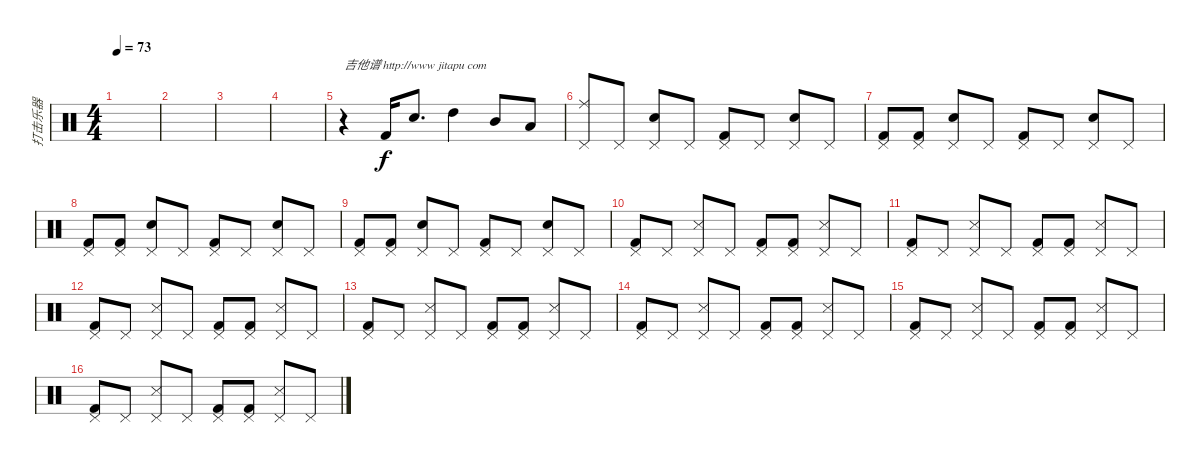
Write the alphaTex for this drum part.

\track ("打击乐器" "打击乐器") {instrument percussion}
\staff {score}
\articulation defaults
\ts (4 4)
\tempo 73
\clef neutral
\ks c
|
|
|
|
r.4{txt "吉他谱 http://www jitapu com"} "Kick (hit) 2".16 "Electric Snare (hit)".8{d} "High Tom (hit)".4 "Mid Tom (hit)".8 "Low Tom (hit)".8 |
("Ride (middle)" "Pedal Hi-Hat (hit)").8 "Pedal Hi-Hat (hit)".8 ("Electric Snare (hit)" "Pedal Hi-Hat (hit)").8 "Pedal Hi-Hat (hit)".8 ("Kick (hit) 2" "Pedal Hi-Hat (hit)").8 "Pedal Hi-Hat (hit)".8 ("Electric Snare (hit)" "Pedal Hi-Hat (hit)").8 "Pedal Hi-Hat (hit)".8 |
("Kick (hit) 2" "Pedal Hi-Hat (hit)").8 ("Kick (hit) 2" "Pedal Hi-Hat (hit)").8 ("Electric Snare (hit)" "Pedal Hi-Hat (hit)").8 "Pedal Hi-Hat (hit)".8 ("Kick (hit) 2" "Pedal Hi-Hat (hit)").8 "Pedal Hi-Hat (hit)".8 ("Electric Snare (hit)" "Pedal Hi-Hat (hit)").8 "Pedal Hi-Hat (hit)".8 |
("Kick (hit) 2" "Pedal Hi-Hat (hit)").8 ("Kick (hit) 2" "Pedal Hi-Hat (hit)").8 ("Electric Snare (hit)" "Pedal Hi-Hat (hit)").8 "Pedal Hi-Hat (hit)".8 ("Kick (hit) 2" "Pedal Hi-Hat (hit)").8 "Pedal Hi-Hat (hit)".8 ("Electric Snare (hit)" "Pedal Hi-Hat (hit)").8 "Pedal Hi-Hat (hit)".8 |
("Kick (hit) 2" "Pedal Hi-Hat (hit)").8 ("Kick (hit) 2" "Pedal Hi-Hat (hit)").8 ("Electric Snare (hit)" "Pedal Hi-Hat (hit)").8 "Pedal Hi-Hat (hit)".8 ("Kick (hit) 2" "Pedal Hi-Hat (hit)").8 "Pedal Hi-Hat (hit)".8 ("Electric Snare (hit)" "Pedal Hi-Hat (hit)").8 "Pedal Hi-Hat (hit)".8 |
("Kick (hit) 2" "Pedal Hi-Hat (hit)").8 "Pedal Hi-Hat (hit)".8 ("Snare (side stick) 3" "Pedal Hi-Hat (hit)").8 "Pedal Hi-Hat (hit)".8 ("Kick (hit) 2" "Pedal Hi-Hat (hit)").8 ("Kick (hit) 2" "Pedal Hi-Hat (hit)").8 ("Snare (side stick) 3" "Pedal Hi-Hat (hit)").8 "Pedal Hi-Hat (hit)".8 |
("Kick (hit) 2" "Pedal Hi-Hat (hit)").8 "Pedal Hi-Hat (hit)".8 ("Snare (side stick) 3" "Pedal Hi-Hat (hit)").8 "Pedal Hi-Hat (hit)".8 ("Kick (hit) 2" "Pedal Hi-Hat (hit)").8 ("Kick (hit) 2" "Pedal Hi-Hat (hit)").8 ("Snare (side stick) 3" "Pedal Hi-Hat (hit)").8 "Pedal Hi-Hat (hit)".8 |
("Kick (hit) 2" "Pedal Hi-Hat (hit)").8 "Pedal Hi-Hat (hit)".8 ("Snare (side stick) 3" "Pedal Hi-Hat (hit)").8 "Pedal Hi-Hat (hit)".8 ("Kick (hit) 2" "Pedal Hi-Hat (hit)").8 ("Kick (hit) 2" "Pedal Hi-Hat (hit)").8 ("Snare (side stick) 3" "Pedal Hi-Hat (hit)").8 "Pedal Hi-Hat (hit)".8 |
("Kick (hit) 2" "Pedal Hi-Hat (hit)").8 "Pedal Hi-Hat (hit)".8 ("Snare (side stick) 3" "Pedal Hi-Hat (hit)").8 "Pedal Hi-Hat (hit)".8 ("Kick (hit) 2" "Pedal Hi-Hat (hit)").8 ("Kick (hit) 2" "Pedal Hi-Hat (hit)").8 ("Snare (side stick) 3" "Pedal Hi-Hat (hit)").8 "Pedal Hi-Hat (hit)".8 |
("Kick (hit) 2" "Pedal Hi-Hat (hit)").8 "Pedal Hi-Hat (hit)".8 ("Snare (side stick) 3" "Pedal Hi-Hat (hit)").8 "Pedal Hi-Hat (hit)".8 ("Kick (hit) 2" "Pedal Hi-Hat (hit)").8 ("Kick (hit) 2" "Pedal Hi-Hat (hit)").8 ("Snare (side stick) 3" "Pedal Hi-Hat (hit)").8 "Pedal Hi-Hat (hit)".8 |
("Kick (hit) 2" "Pedal Hi-Hat (hit)").8 "Pedal Hi-Hat (hit)".8 ("Snare (side stick) 3" "Pedal Hi-Hat (hit)").8 "Pedal Hi-Hat (hit)".8 ("Kick (hit) 2" "Pedal Hi-Hat (hit)").8 ("Kick (hit) 2" "Pedal Hi-Hat (hit)").8 ("Snare (side stick) 3" "Pedal Hi-Hat (hit)").8 "Pedal Hi-Hat (hit)".8 |
("Kick (hit) 2" "Pedal Hi-Hat (hit)").8 "Pedal Hi-Hat (hit)".8 ("Snare (side stick) 3" "Pedal Hi-Hat (hit)").8 "Pedal Hi-Hat (hit)".8 ("Kick (hit) 2" "Pedal Hi-Hat (hit)").8 ("Kick (hit) 2" "Pedal Hi-Hat (hit)").8 ("Snare (side stick) 3" "Pedal Hi-Hat (hit)").8 "Pedal Hi-Hat (hit)".8
